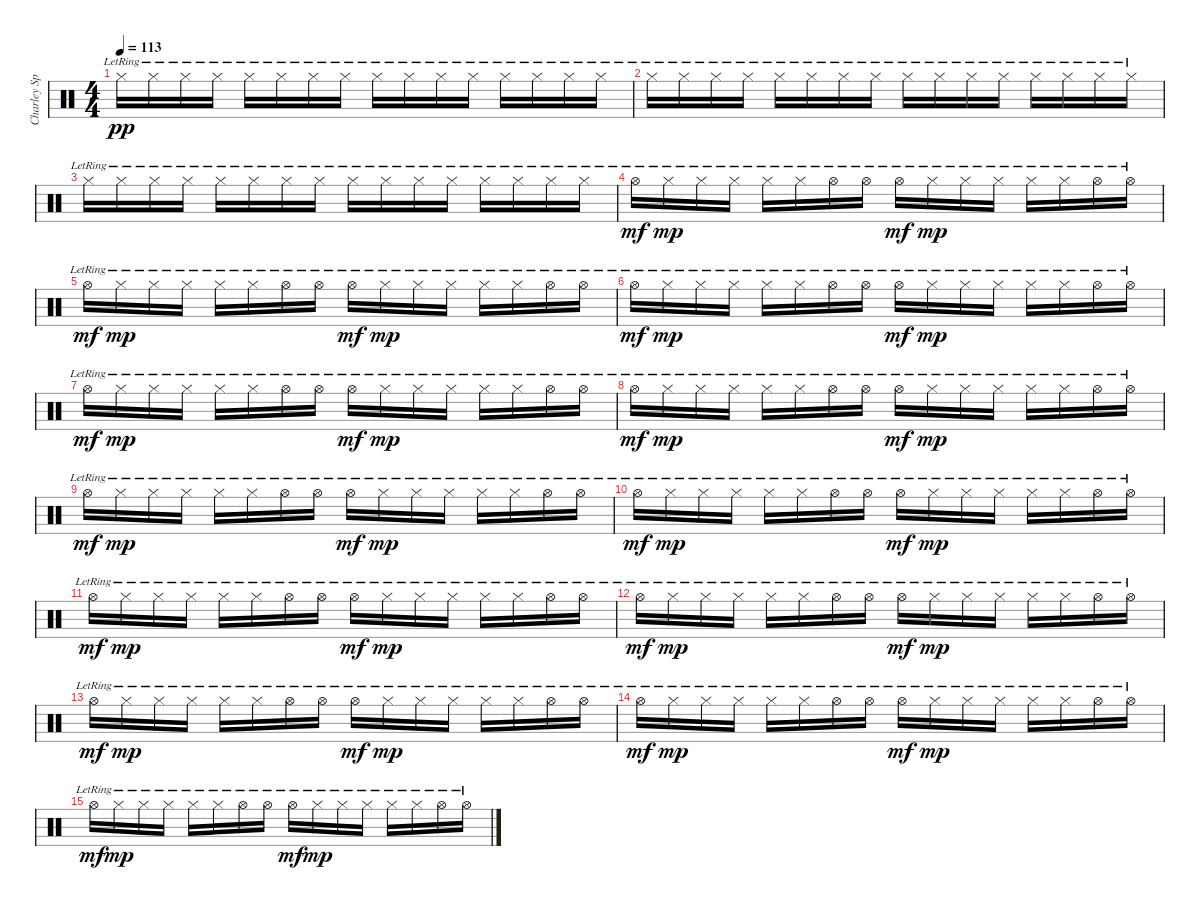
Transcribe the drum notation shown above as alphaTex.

\track ("Charley Spec." "Charley Sp") {instrument percussion}
\staff {score}
\articulation defaults
\ts (4 4)
\tempo 113
\clef neutral
\ks c "Hi-Hat (closed)"{lr}.16{dy pp} "Hi-Hat (closed)"{lr}.16 "Hi-Hat (closed)"{lr}.16 "Hi-Hat (closed)"{lr}.16 "Hi-Hat (closed)"{lr}.16 "Hi-Hat (closed)"{lr}.16 "Hi-Hat (closed)"{lr}.16 "Hi-Hat (closed)"{lr}.16 "Hi-Hat (closed)"{lr}.16 "Hi-Hat (closed)"{lr}.16 "Hi-Hat (closed)"{lr}.16 "Hi-Hat (closed)"{lr}.16 "Hi-Hat (closed)"{lr}.16 "Hi-Hat (closed)"{lr}.16 "Hi-Hat (closed)"{lr}.16 "Hi-Hat (closed)"{lr}.16
|
"Hi-Hat (closed)"{lr}.16 "Hi-Hat (closed)"{lr}.16 "Hi-Hat (closed)"{lr}.16 "Hi-Hat (closed)"{lr}.16 "Hi-Hat (closed)"{lr}.16 "Hi-Hat (closed)"{lr}.16 "Hi-Hat (closed)"{lr}.16 "Hi-Hat (closed)"{lr}.16 "Hi-Hat (closed)"{lr}.16 "Hi-Hat (closed)"{lr}.16 "Hi-Hat (closed)"{lr}.16 "Hi-Hat (closed)"{lr}.16 "Hi-Hat (closed)"{lr}.16 "Hi-Hat (closed)"{lr}.16 "Hi-Hat (closed)"{lr}.16 "Hi-Hat (closed)"{lr}.16 |
"Hi-Hat (closed)"{lr}.16 "Hi-Hat (closed)"{lr}.16 "Hi-Hat (closed)"{lr}.16 "Hi-Hat (closed)"{lr}.16 "Hi-Hat (closed)"{lr}.16 "Hi-Hat (closed)"{lr}.16 "Hi-Hat (closed)"{lr}.16 "Hi-Hat (closed)"{lr}.16 "Hi-Hat (closed)"{lr}.16 "Hi-Hat (closed)"{lr}.16 "Hi-Hat (closed)"{lr}.16 "Hi-Hat (closed)"{lr}.16 "Hi-Hat (closed)"{lr}.16 "Hi-Hat (closed)"{lr}.16 "Hi-Hat (closed)"{lr}.16 "Hi-Hat (closed)"{lr}.16 |
"Hi-Hat (open)"{lr}.16{dy mf} "Hi-Hat (closed)"{lr}.16{dy mp} "Hi-Hat (closed)"{lr}.16 "Hi-Hat (closed)"{lr}.16 "Hi-Hat (closed)"{lr}.16 "Hi-Hat (closed)"{lr}.16 "Hi-Hat (open)"{lr}.16 "Hi-Hat (open)"{lr}.16 "Hi-Hat (open)"{lr}.16{dy mf} "Hi-Hat (closed)"{lr}.16{dy mp} "Hi-Hat (closed)"{lr}.16 "Hi-Hat (closed)"{lr}.16 "Hi-Hat (closed)"{lr}.16 "Hi-Hat (closed)"{lr}.16 "Hi-Hat (open)"{lr}.16 "Hi-Hat (open)"{lr}.16 |
"Hi-Hat (open)"{lr}.16{dy mf} "Hi-Hat (closed)"{lr}.16{dy mp} "Hi-Hat (closed)"{lr}.16 "Hi-Hat (closed)"{lr}.16 "Hi-Hat (closed)"{lr}.16 "Hi-Hat (closed)"{lr}.16 "Hi-Hat (open)"{lr}.16 "Hi-Hat (open)"{lr}.16 "Hi-Hat (open)"{lr}.16{dy mf} "Hi-Hat (closed)"{lr}.16{dy mp} "Hi-Hat (closed)"{lr}.16 "Hi-Hat (closed)"{lr}.16 "Hi-Hat (closed)"{lr}.16 "Hi-Hat (closed)"{lr}.16 "Hi-Hat (open)"{lr}.16 "Hi-Hat (open)"{lr}.16 |
"Hi-Hat (open)"{lr}.16{dy mf} "Hi-Hat (closed)"{lr}.16{dy mp} "Hi-Hat (closed)"{lr}.16 "Hi-Hat (closed)"{lr}.16 "Hi-Hat (closed)"{lr}.16 "Hi-Hat (closed)"{lr}.16 "Hi-Hat (open)"{lr}.16 "Hi-Hat (open)"{lr}.16 "Hi-Hat (open)"{lr}.16{dy mf} "Hi-Hat (closed)"{lr}.16{dy mp} "Hi-Hat (closed)"{lr}.16 "Hi-Hat (closed)"{lr}.16 "Hi-Hat (closed)"{lr}.16 "Hi-Hat (closed)"{lr}.16 "Hi-Hat (open)"{lr}.16 "Hi-Hat (open)"{lr}.16 |
"Hi-Hat (open)"{lr}.16{dy mf} "Hi-Hat (closed)"{lr}.16{dy mp} "Hi-Hat (closed)"{lr}.16 "Hi-Hat (closed)"{lr}.16 "Hi-Hat (closed)"{lr}.16 "Hi-Hat (closed)"{lr}.16 "Hi-Hat (open)"{lr}.16 "Hi-Hat (open)"{lr}.16 "Hi-Hat (open)"{lr}.16{dy mf} "Hi-Hat (closed)"{lr}.16{dy mp} "Hi-Hat (closed)"{lr}.16 "Hi-Hat (closed)"{lr}.16 "Hi-Hat (closed)"{lr}.16 "Hi-Hat (closed)"{lr}.16 "Hi-Hat (open)"{lr}.16 "Hi-Hat (open)"{lr}.16 |
"Hi-Hat (open)"{lr}.16{dy mf} "Hi-Hat (closed)"{lr}.16{dy mp} "Hi-Hat (closed)"{lr}.16 "Hi-Hat (closed)"{lr}.16 "Hi-Hat (closed)"{lr}.16 "Hi-Hat (closed)"{lr}.16 "Hi-Hat (open)"{lr}.16 "Hi-Hat (open)"{lr}.16 "Hi-Hat (open)"{lr}.16{dy mf} "Hi-Hat (closed)"{lr}.16{dy mp} "Hi-Hat (closed)"{lr}.16 "Hi-Hat (closed)"{lr}.16 "Hi-Hat (closed)"{lr}.16 "Hi-Hat (closed)"{lr}.16 "Hi-Hat (open)"{lr}.16 "Hi-Hat (open)"{lr}.16 |
"Hi-Hat (open)"{lr}.16{dy mf} "Hi-Hat (closed)"{lr}.16{dy mp} "Hi-Hat (closed)"{lr}.16 "Hi-Hat (closed)"{lr}.16 "Hi-Hat (closed)"{lr}.16 "Hi-Hat (closed)"{lr}.16 "Hi-Hat (open)"{lr}.16 "Hi-Hat (open)"{lr}.16 "Hi-Hat (open)"{lr}.16{dy mf} "Hi-Hat (closed)"{lr}.16{dy mp} "Hi-Hat (closed)"{lr}.16 "Hi-Hat (closed)"{lr}.16 "Hi-Hat (closed)"{lr}.16 "Hi-Hat (closed)"{lr}.16 "Hi-Hat (open)"{lr}.16 "Hi-Hat (open)"{lr}.16 |
"Hi-Hat (open)"{lr}.16{dy mf} "Hi-Hat (closed)"{lr}.16{dy mp} "Hi-Hat (closed)"{lr}.16 "Hi-Hat (closed)"{lr}.16 "Hi-Hat (closed)"{lr}.16 "Hi-Hat (closed)"{lr}.16 "Hi-Hat (open)"{lr}.16 "Hi-Hat (open)"{lr}.16 "Hi-Hat (open)"{lr}.16{dy mf} "Hi-Hat (closed)"{lr}.16{dy mp} "Hi-Hat (closed)"{lr}.16 "Hi-Hat (closed)"{lr}.16 "Hi-Hat (closed)"{lr}.16 "Hi-Hat (closed)"{lr}.16 "Hi-Hat (open)"{lr}.16 "Hi-Hat (open)"{lr}.16 |
"Hi-Hat (open)"{lr}.16{dy mf} "Hi-Hat (closed)"{lr}.16{dy mp} "Hi-Hat (closed)"{lr}.16 "Hi-Hat (closed)"{lr}.16 "Hi-Hat (closed)"{lr}.16 "Hi-Hat (closed)"{lr}.16 "Hi-Hat (open)"{lr}.16 "Hi-Hat (open)"{lr}.16 "Hi-Hat (open)"{lr}.16{dy mf} "Hi-Hat (closed)"{lr}.16{dy mp} "Hi-Hat (closed)"{lr}.16 "Hi-Hat (closed)"{lr}.16 "Hi-Hat (closed)"{lr}.16 "Hi-Hat (closed)"{lr}.16 "Hi-Hat (open)"{lr}.16 "Hi-Hat (open)"{lr}.16 |
"Hi-Hat (open)"{lr}.16{dy mf} "Hi-Hat (closed)"{lr}.16{dy mp} "Hi-Hat (closed)"{lr}.16 "Hi-Hat (closed)"{lr}.16 "Hi-Hat (closed)"{lr}.16 "Hi-Hat (closed)"{lr}.16 "Hi-Hat (open)"{lr}.16 "Hi-Hat (open)"{lr}.16 "Hi-Hat (open)"{lr}.16{dy mf} "Hi-Hat (closed)"{lr}.16{dy mp} "Hi-Hat (closed)"{lr}.16 "Hi-Hat (closed)"{lr}.16 "Hi-Hat (closed)"{lr}.16 "Hi-Hat (closed)"{lr}.16 "Hi-Hat (open)"{lr}.16 "Hi-Hat (open)"{lr}.16 |
"Hi-Hat (open)"{lr}.16{dy mf} "Hi-Hat (closed)"{lr}.16{dy mp} "Hi-Hat (closed)"{lr}.16 "Hi-Hat (closed)"{lr}.16 "Hi-Hat (closed)"{lr}.16 "Hi-Hat (closed)"{lr}.16 "Hi-Hat (open)"{lr}.16 "Hi-Hat (open)"{lr}.16 "Hi-Hat (open)"{lr}.16{dy mf} "Hi-Hat (closed)"{lr}.16{dy mp} "Hi-Hat (closed)"{lr}.16 "Hi-Hat (closed)"{lr}.16 "Hi-Hat (closed)"{lr}.16 "Hi-Hat (closed)"{lr}.16 "Hi-Hat (open)"{lr}.16 "Hi-Hat (open)"{lr}.16 |
"Hi-Hat (open)"{lr}.16{dy mf} "Hi-Hat (closed)"{lr}.16{dy mp} "Hi-Hat (closed)"{lr}.16 "Hi-Hat (closed)"{lr}.16 "Hi-Hat (closed)"{lr}.16 "Hi-Hat (closed)"{lr}.16 "Hi-Hat (open)"{lr}.16 "Hi-Hat (open)"{lr}.16 "Hi-Hat (open)"{lr}.16{dy mf} "Hi-Hat (closed)"{lr}.16{dy mp} "Hi-Hat (closed)"{lr}.16 "Hi-Hat (closed)"{lr}.16 "Hi-Hat (closed)"{lr}.16 "Hi-Hat (closed)"{lr}.16 "Hi-Hat (open)"{lr}.16 "Hi-Hat (open)"{lr}.16 |
"Hi-Hat (open)"{lr}.16{dy mf} "Hi-Hat (closed)"{lr}.16{dy mp} "Hi-Hat (closed)"{lr}.16 "Hi-Hat (closed)"{lr}.16 "Hi-Hat (closed)"{lr}.16 "Hi-Hat (closed)"{lr}.16 "Hi-Hat (open)"{lr}.16 "Hi-Hat (open)"{lr}.16 "Hi-Hat (open)"{lr}.16{dy mf} "Hi-Hat (closed)"{lr}.16{dy mp} "Hi-Hat (closed)"{lr}.16 "Hi-Hat (closed)"{lr}.16 "Hi-Hat (closed)"{lr}.16 "Hi-Hat (closed)"{lr}.16 "Hi-Hat (open)"{lr}.16 "Hi-Hat (open)"{lr}.16
